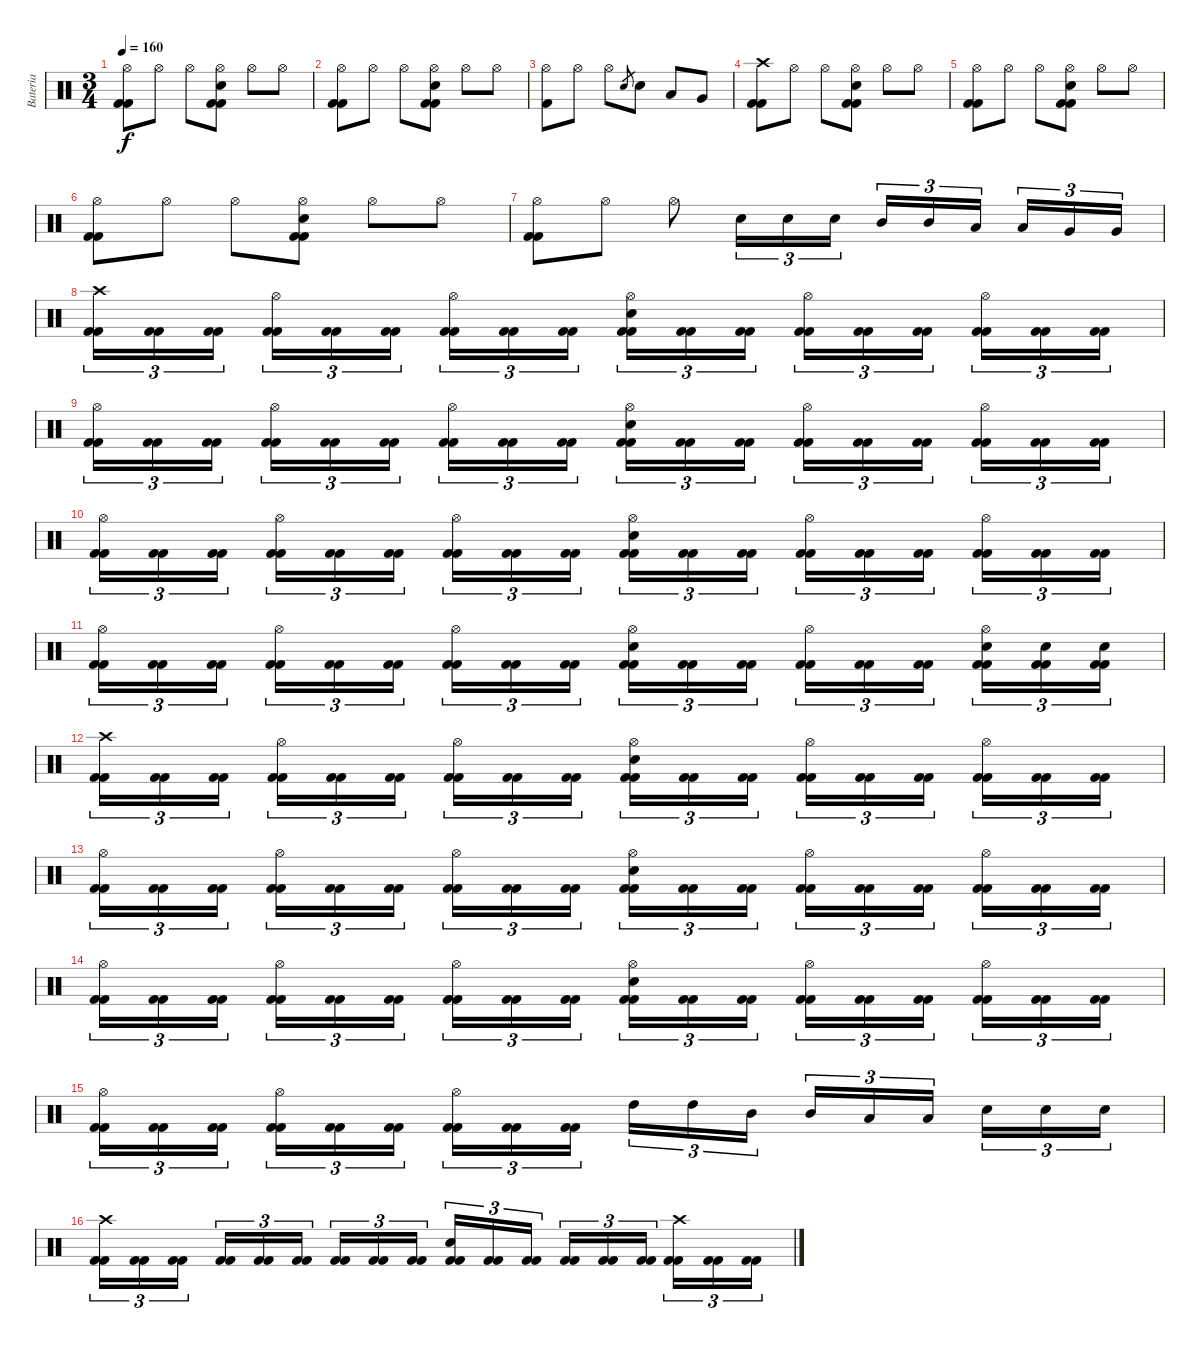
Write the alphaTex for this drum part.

\track ("Bateria" "Bateria") {instrument percussion}
\staff {score}
\articulation defaults
\ts (3 4)
\tempo 160
\clef neutral
\ks c
("Hi-Hat (open)" "Kick (hit) 2" "Kick (hit) 2").8{dy f} "Hi-Hat (open)".8 "Hi-Hat (open)".8 ("Kick (hit) 2" "Kick (hit) 2" "Snare (hit) 2" "Hi-Hat (open)").8 "Hi-Hat (open)".8 "Hi-Hat (open)".8 |
("Hi-Hat (open)" "Kick (hit) 2" "Kick (hit) 2").8 "Hi-Hat (open)".8 "Hi-Hat (open)".8 ("Kick (hit) 2" "Kick (hit) 2" "Snare (hit) 2" "Hi-Hat (open)").8 "Hi-Hat (open)".8 "Hi-Hat (open)".8 |
("Hi-Hat (open)" "Kick (hit) 2").8 "Hi-Hat (open)".8 "Hi-Hat (open)".8 "Snare (hit) 2".8{gr} "Snare (hit) 2".8 "Low Tom (hit)".8 "Very Low Tom (hit)".8 |
("Crash high (hit)" "Kick (hit) 2" "Kick (hit) 2").8 "Hi-Hat (open)".8 "Hi-Hat (open)".8 ("Kick (hit) 2" "Kick (hit) 2" "Snare (hit) 2" "Hi-Hat (open)").8 "Hi-Hat (open)".8 "Hi-Hat (open)".8 |
("Hi-Hat (open)" "Kick (hit) 2" "Kick (hit) 2").8 "Hi-Hat (open)".8 "Hi-Hat (open)".8 ("Kick (hit) 2" "Kick (hit) 2" "Snare (hit) 2" "Hi-Hat (open)").8 "Hi-Hat (open)".8 "Hi-Hat (open)".8 |
("Hi-Hat (open)" "Kick (hit) 2" "Kick (hit) 2").8 "Hi-Hat (open)".8 "Hi-Hat (open)".8 ("Kick (hit) 2" "Kick (hit) 2" "Snare (hit) 2" "Hi-Hat (open)").8 "Hi-Hat (open)".8 "Hi-Hat (open)".8 |
("Hi-Hat (open)" "Kick (hit) 2" "Kick (hit) 2").8 "Hi-Hat (open)".8 "Hi-Hat (open)".8 "Snare (hit) 2".16{tu (3 2)} "Snare (hit) 2".16{tu (3 2)} "Snare (hit) 2".16{tu (3 2)} "Mid Tom (hit)".16{tu (3 2)} "Mid Tom (hit)".16{tu (3 2)} "Low Tom (hit)".16{tu (3 2)} "Low Tom (hit)".16{tu (3 2)} "Very Low Tom (hit)".16{tu (3 2)} "Very Low Tom (hit)".16{tu (3 2)} |
("Kick (hit) 2" "Kick (hit) 2" "Crash high (hit)").16{tu (3 2)} ("Kick (hit) 2" "Kick (hit) 2").16{tu (3 2)} ("Kick (hit) 2" "Kick (hit) 2").16{tu (3 2)} ("Kick (hit) 2" "Kick (hit) 2" "Hi-Hat (open)").16{tu (3 2)} ("Kick (hit) 2" "Kick (hit) 2").16{tu (3 2)} ("Kick (hit) 2" "Kick (hit) 2").16{tu (3 2)} ("Kick (hit) 2" "Kick (hit) 2" "Hi-Hat (open)").16{tu (3 2)} ("Kick (hit) 2" "Kick (hit) 2").16{tu (3 2)} ("Kick (hit) 2" "Kick (hit) 2").16{tu (3 2)} ("Kick (hit) 2" "Kick (hit) 2" "Snare (hit) 2" "Hi-Hat (open)").16{tu (3 2)} ("Kick (hit) 2" "Kick (hit) 2").16{tu (3 2)} ("Kick (hit) 2" "Kick (hit) 2").16{tu (3 2)} ("Kick (hit) 2" "Kick (hit) 2" "Hi-Hat (open)").16{tu (3 2)} ("Kick (hit) 2" "Kick (hit) 2").16{tu (3 2)} ("Kick (hit) 2" "Kick (hit) 2").16{tu (3 2)} ("Kick (hit) 2" "Kick (hit) 2" "Hi-Hat (open)").16{tu (3 2)} ("Kick (hit) 2" "Kick (hit) 2").16{tu (3 2)} ("Kick (hit) 2" "Kick (hit) 2").16{tu (3 2)} |
("Kick (hit) 2" "Kick (hit) 2" "Hi-Hat (open)").16{tu (3 2)} ("Kick (hit) 2" "Kick (hit) 2").16{tu (3 2)} ("Kick (hit) 2" "Kick (hit) 2").16{tu (3 2)} ("Kick (hit) 2" "Kick (hit) 2" "Hi-Hat (open)").16{tu (3 2)} ("Kick (hit) 2" "Kick (hit) 2").16{tu (3 2)} ("Kick (hit) 2" "Kick (hit) 2").16{tu (3 2)} ("Kick (hit) 2" "Kick (hit) 2" "Hi-Hat (open)").16{tu (3 2)} ("Kick (hit) 2" "Kick (hit) 2").16{tu (3 2)} ("Kick (hit) 2" "Kick (hit) 2").16{tu (3 2)} ("Kick (hit) 2" "Kick (hit) 2" "Snare (hit) 2" "Hi-Hat (open)").16{tu (3 2)} ("Kick (hit) 2" "Kick (hit) 2").16{tu (3 2)} ("Kick (hit) 2" "Kick (hit) 2").16{tu (3 2)} ("Kick (hit) 2" "Kick (hit) 2" "Hi-Hat (open)").16{tu (3 2)} ("Kick (hit) 2" "Kick (hit) 2").16{tu (3 2)} ("Kick (hit) 2" "Kick (hit) 2").16{tu (3 2)} ("Kick (hit) 2" "Kick (hit) 2" "Hi-Hat (open)").16{tu (3 2)} ("Kick (hit) 2" "Kick (hit) 2").16{tu (3 2)} ("Kick (hit) 2" "Kick (hit) 2").16{tu (3 2)} |
("Kick (hit) 2" "Kick (hit) 2" "Hi-Hat (open)").16{tu (3 2)} ("Kick (hit) 2" "Kick (hit) 2").16{tu (3 2)} ("Kick (hit) 2" "Kick (hit) 2").16{tu (3 2)} ("Kick (hit) 2" "Kick (hit) 2" "Hi-Hat (open)").16{tu (3 2)} ("Kick (hit) 2" "Kick (hit) 2").16{tu (3 2)} ("Kick (hit) 2" "Kick (hit) 2").16{tu (3 2)} ("Kick (hit) 2" "Kick (hit) 2" "Hi-Hat (open)").16{tu (3 2)} ("Kick (hit) 2" "Kick (hit) 2").16{tu (3 2)} ("Kick (hit) 2" "Kick (hit) 2").16{tu (3 2)} ("Kick (hit) 2" "Kick (hit) 2" "Snare (hit) 2" "Hi-Hat (open)").16{tu (3 2)} ("Kick (hit) 2" "Kick (hit) 2").16{tu (3 2)} ("Kick (hit) 2" "Kick (hit) 2").16{tu (3 2)} ("Kick (hit) 2" "Kick (hit) 2" "Hi-Hat (open)").16{tu (3 2)} ("Kick (hit) 2" "Kick (hit) 2").16{tu (3 2)} ("Kick (hit) 2" "Kick (hit) 2").16{tu (3 2)} ("Kick (hit) 2" "Kick (hit) 2" "Hi-Hat (open)").16{tu (3 2)} ("Kick (hit) 2" "Kick (hit) 2").16{tu (3 2)} ("Kick (hit) 2" "Kick (hit) 2").16{tu (3 2)} |
("Kick (hit) 2" "Kick (hit) 2" "Hi-Hat (open)").16{tu (3 2)} ("Kick (hit) 2" "Kick (hit) 2").16{tu (3 2)} ("Kick (hit) 2" "Kick (hit) 2").16{tu (3 2)} ("Kick (hit) 2" "Kick (hit) 2" "Hi-Hat (open)").16{tu (3 2)} ("Kick (hit) 2" "Kick (hit) 2").16{tu (3 2)} ("Kick (hit) 2" "Kick (hit) 2").16{tu (3 2)} ("Kick (hit) 2" "Kick (hit) 2" "Hi-Hat (open)").16{tu (3 2)} ("Kick (hit) 2" "Kick (hit) 2").16{tu (3 2)} ("Kick (hit) 2" "Kick (hit) 2").16{tu (3 2)} ("Kick (hit) 2" "Kick (hit) 2" "Snare (hit) 2" "Hi-Hat (open)").16{tu (3 2)} ("Kick (hit) 2" "Kick (hit) 2").16{tu (3 2)} ("Kick (hit) 2" "Kick (hit) 2").16{tu (3 2)} ("Kick (hit) 2" "Kick (hit) 2" "Hi-Hat (open)").16{tu (3 2)} ("Kick (hit) 2" "Kick (hit) 2").16{tu (3 2)} ("Kick (hit) 2" "Kick (hit) 2").16{tu (3 2)} ("Kick (hit) 2" "Kick (hit) 2" "Snare (hit) 2" "Hi-Hat (open)").16{tu (3 2)} ("Kick (hit) 2" "Kick (hit) 2" "Snare (hit) 2").16{tu (3 2)} ("Kick (hit) 2" "Kick (hit) 2" "Snare (hit) 2").16{tu (3 2)} |
("Kick (hit) 2" "Kick (hit) 2" "Crash high (hit)").16{tu (3 2)} ("Kick (hit) 2" "Kick (hit) 2").16{tu (3 2)} ("Kick (hit) 2" "Kick (hit) 2").16{tu (3 2)} ("Kick (hit) 2" "Kick (hit) 2" "Hi-Hat (open)").16{tu (3 2)} ("Kick (hit) 2" "Kick (hit) 2").16{tu (3 2)} ("Kick (hit) 2" "Kick (hit) 2").16{tu (3 2)} ("Kick (hit) 2" "Kick (hit) 2" "Hi-Hat (open)").16{tu (3 2)} ("Kick (hit) 2" "Kick (hit) 2").16{tu (3 2)} ("Kick (hit) 2" "Kick (hit) 2").16{tu (3 2)} ("Kick (hit) 2" "Kick (hit) 2" "Snare (hit) 2" "Hi-Hat (open)").16{tu (3 2)} ("Kick (hit) 2" "Kick (hit) 2").16{tu (3 2)} ("Kick (hit) 2" "Kick (hit) 2").16{tu (3 2)} ("Kick (hit) 2" "Kick (hit) 2" "Hi-Hat (open)").16{tu (3 2)} ("Kick (hit) 2" "Kick (hit) 2").16{tu (3 2)} ("Kick (hit) 2" "Kick (hit) 2").16{tu (3 2)} ("Kick (hit) 2" "Kick (hit) 2" "Hi-Hat (open)").16{tu (3 2)} ("Kick (hit) 2" "Kick (hit) 2").16{tu (3 2)} ("Kick (hit) 2" "Kick (hit) 2").16{tu (3 2)} |
("Kick (hit) 2" "Kick (hit) 2" "Hi-Hat (open)").16{tu (3 2)} ("Kick (hit) 2" "Kick (hit) 2").16{tu (3 2)} ("Kick (hit) 2" "Kick (hit) 2").16{tu (3 2)} ("Kick (hit) 2" "Kick (hit) 2" "Hi-Hat (open)").16{tu (3 2)} ("Kick (hit) 2" "Kick (hit) 2").16{tu (3 2)} ("Kick (hit) 2" "Kick (hit) 2").16{tu (3 2)} ("Kick (hit) 2" "Kick (hit) 2" "Hi-Hat (open)").16{tu (3 2)} ("Kick (hit) 2" "Kick (hit) 2").16{tu (3 2)} ("Kick (hit) 2" "Kick (hit) 2").16{tu (3 2)} ("Kick (hit) 2" "Kick (hit) 2" "Snare (hit) 2" "Hi-Hat (open)").16{tu (3 2)} ("Kick (hit) 2" "Kick (hit) 2").16{tu (3 2)} ("Kick (hit) 2" "Kick (hit) 2").16{tu (3 2)} ("Kick (hit) 2" "Kick (hit) 2" "Hi-Hat (open)").16{tu (3 2)} ("Kick (hit) 2" "Kick (hit) 2").16{tu (3 2)} ("Kick (hit) 2" "Kick (hit) 2").16{tu (3 2)} ("Kick (hit) 2" "Kick (hit) 2" "Hi-Hat (open)").16{tu (3 2)} ("Kick (hit) 2" "Kick (hit) 2").16{tu (3 2)} ("Kick (hit) 2" "Kick (hit) 2").16{tu (3 2)} |
("Kick (hit) 2" "Kick (hit) 2" "Hi-Hat (open)").16{tu (3 2)} ("Kick (hit) 2" "Kick (hit) 2").16{tu (3 2)} ("Kick (hit) 2" "Kick (hit) 2").16{tu (3 2)} ("Kick (hit) 2" "Kick (hit) 2" "Hi-Hat (open)").16{tu (3 2)} ("Kick (hit) 2" "Kick (hit) 2").16{tu (3 2)} ("Kick (hit) 2" "Kick (hit) 2").16{tu (3 2)} ("Kick (hit) 2" "Kick (hit) 2" "Hi-Hat (open)").16{tu (3 2)} ("Kick (hit) 2" "Kick (hit) 2").16{tu (3 2)} ("Kick (hit) 2" "Kick (hit) 2").16{tu (3 2)} ("Kick (hit) 2" "Kick (hit) 2" "Snare (hit) 2" "Hi-Hat (open)").16{tu (3 2)} ("Kick (hit) 2" "Kick (hit) 2").16{tu (3 2)} ("Kick (hit) 2" "Kick (hit) 2").16{tu (3 2)} ("Kick (hit) 2" "Kick (hit) 2" "Hi-Hat (open)").16{tu (3 2)} ("Kick (hit) 2" "Kick (hit) 2").16{tu (3 2)} ("Kick (hit) 2" "Kick (hit) 2").16{tu (3 2)} ("Kick (hit) 2" "Kick (hit) 2" "Hi-Hat (open)").16{tu (3 2)} ("Kick (hit) 2" "Kick (hit) 2").16{tu (3 2)} ("Kick (hit) 2" "Kick (hit) 2").16{tu (3 2)} |
("Kick (hit) 2" "Kick (hit) 2" "Hi-Hat (open)").16{tu (3 2)} ("Kick (hit) 2" "Kick (hit) 2").16{tu (3 2)} ("Kick (hit) 2" "Kick (hit) 2").16{tu (3 2)} ("Kick (hit) 2" "Kick (hit) 2" "Hi-Hat (open)").16{tu (3 2)} ("Kick (hit) 2" "Kick (hit) 2").16{tu (3 2)} ("Kick (hit) 2" "Kick (hit) 2").16{tu (3 2)} ("Kick (hit) 2" "Kick (hit) 2" "Hi-Hat (open)").16{tu (3 2)} ("Kick (hit) 2" "Kick (hit) 2").16{tu (3 2)} ("Kick (hit) 2" "Kick (hit) 2").16{tu (3 2)} "High Tom (hit)".16{tu (3 2)} "High Tom (hit)".16{tu (3 2)} "Mid Tom (hit)".16{tu (3 2)} "Mid Tom (hit)".16{tu (3 2)} "Low Tom (hit)".16{tu (3 2)} "Low Tom (hit)".16{tu (3 2)} "Snare (hit) 2".16{tu (3 2)} "Snare (hit) 2".16{tu (3 2)} "Snare (hit) 2".16{tu (3 2)} |
("Kick (hit) 2" "Kick (hit) 2" "Crash high (hit)").16{tu (3 2)} ("Kick (hit) 2" "Kick (hit) 2").16{tu (3 2)} ("Kick (hit) 2" "Kick (hit) 2").16{tu (3 2)} ("Kick (hit) 2" "Kick (hit) 2").16{tu (3 2)} ("Kick (hit) 2" "Kick (hit) 2").16{tu (3 2)} ("Kick (hit) 2" "Kick (hit) 2").16{tu (3 2)} ("Kick (hit) 2" "Kick (hit) 2").16{tu (3 2)} ("Kick (hit) 2" "Kick (hit) 2").16{tu (3 2)} ("Kick (hit) 2" "Kick (hit) 2").16{tu (3 2)} ("Kick (hit) 2" "Kick (hit) 2" "Snare (hit) 2").16{tu (3 2)} ("Kick (hit) 2" "Kick (hit) 2").16{tu (3 2)} ("Kick (hit) 2" "Kick (hit) 2").16{tu (3 2)} ("Kick (hit) 2" "Kick (hit) 2").16{tu (3 2)} ("Kick (hit) 2" "Kick (hit) 2").16{tu (3 2)} ("Kick (hit) 2" "Kick (hit) 2").16{tu (3 2)} ("Kick (hit) 2" "Kick (hit) 2" "Crash high (hit)").16{tu (3 2)} ("Kick (hit) 2" "Kick (hit) 2").16{tu (3 2)} ("Kick (hit) 2" "Kick (hit) 2").16{tu (3 2)}
